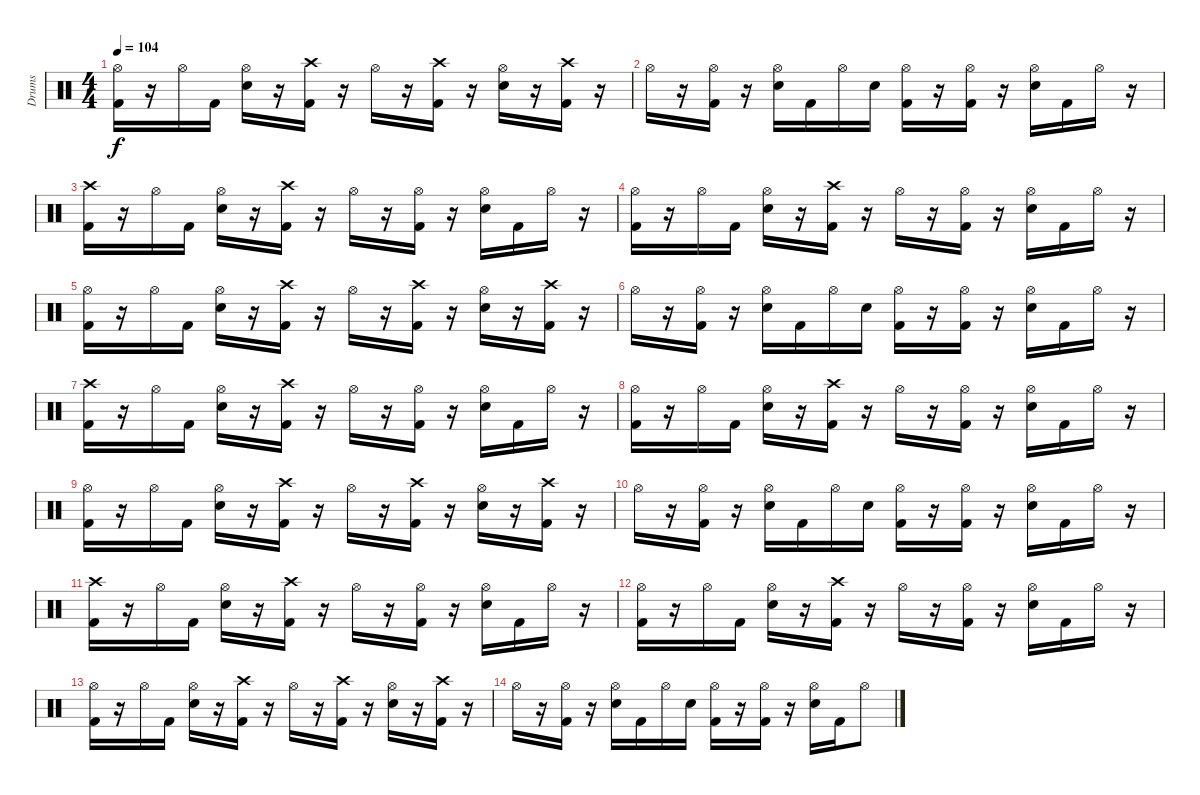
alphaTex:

\track ("Drums" "Drums") {instrument percussion}
\staff {score}
\articulation defaults
\ts (4 4)
\tempo 104
\clef neutral
\ks c
("Hi-Hat (open)" "Kick (hit) 2").16{dy f} r.16 "Hi-Hat (open)".16 "Kick (hit) 2".16 ("Hi-Hat (open)" "Snare (hit) 2").16 r.16 ("Crash high (hit)" "Kick (hit) 2").16 r.16 "Hi-Hat (open)".16 r.16 ("Crash high (hit)" "Kick (hit) 2").16 r.16 ("Hi-Hat (open)" "Snare (hit) 2").16 r.16 ("Crash high (hit)" "Kick (hit) 2").16 r.16 |
"Hi-Hat (open)".16 r.16 ("Hi-Hat (open)" "Kick (hit) 2").16 r.16 ("Hi-Hat (open)" "Snare (hit) 2").16 "Kick (hit) 2".16 "Hi-Hat (open)".16 "Snare (hit) 2".16 ("Hi-Hat (open)" "Kick (hit) 2").16 r.16 ("Hi-Hat (open)" "Kick (hit) 2").16 r.16 ("Hi-Hat (open)" "Snare (hit) 2").16 "Kick (hit) 2".16 "Hi-Hat (open)".16 r.16 |
("Crash high (hit)" "Kick (hit) 2").16 r.16 "Hi-Hat (open)".16 "Kick (hit) 2".16 ("Hi-Hat (open)" "Snare (hit) 2").16 r.16 ("Crash high (hit)" "Kick (hit) 2").16 r.16 "Hi-Hat (open)".16 r.16 ("Hi-Hat (open)" "Kick (hit) 2").16 r.16 ("Hi-Hat (open)" "Snare (hit) 2").16 "Kick (hit) 2".16 "Hi-Hat (open)".16 r.16 |
("Hi-Hat (open)" "Kick (hit) 2").16 r.16 "Hi-Hat (open)".16 "Kick (hit) 2".16 ("Hi-Hat (open)" "Snare (hit) 2").16 r.16 ("Crash high (hit)" "Kick (hit) 2").16 r.16 "Hi-Hat (open)".16 r.16 ("Hi-Hat (open)" "Kick (hit) 2").16 r.16 ("Hi-Hat (open)" "Snare (hit) 2").16 "Kick (hit) 2".16 "Hi-Hat (open)".16 r.16 |
("Hi-Hat (open)" "Kick (hit) 2").16 r.16 "Hi-Hat (open)".16 "Kick (hit) 2".16 ("Hi-Hat (open)" "Snare (hit) 2").16 r.16 ("Crash high (hit)" "Kick (hit) 2").16 r.16 "Hi-Hat (open)".16 r.16 ("Crash high (hit)" "Kick (hit) 2").16 r.16 ("Hi-Hat (open)" "Snare (hit) 2").16 r.16 ("Crash high (hit)" "Kick (hit) 2").16 r.16 |
"Hi-Hat (open)".16 r.16 ("Hi-Hat (open)" "Kick (hit) 2").16 r.16 ("Hi-Hat (open)" "Snare (hit) 2").16 "Kick (hit) 2".16 "Hi-Hat (open)".16 "Snare (hit) 2".16 ("Hi-Hat (open)" "Kick (hit) 2").16 r.16 ("Hi-Hat (open)" "Kick (hit) 2").16 r.16 ("Hi-Hat (open)" "Snare (hit) 2").16 "Kick (hit) 2".16 "Hi-Hat (open)".16 r.16 |
("Crash high (hit)" "Kick (hit) 2").16 r.16 "Hi-Hat (open)".16 "Kick (hit) 2".16 ("Hi-Hat (open)" "Snare (hit) 2").16 r.16 ("Crash high (hit)" "Kick (hit) 2").16 r.16 "Hi-Hat (open)".16 r.16 ("Hi-Hat (open)" "Kick (hit) 2").16 r.16 ("Hi-Hat (open)" "Snare (hit) 2").16 "Kick (hit) 2".16 "Hi-Hat (open)".16 r.16 |
("Hi-Hat (open)" "Kick (hit) 2").16 r.16 "Hi-Hat (open)".16 "Kick (hit) 2".16 ("Hi-Hat (open)" "Snare (hit) 2").16 r.16 ("Crash high (hit)" "Kick (hit) 2").16 r.16 "Hi-Hat (open)".16 r.16 ("Hi-Hat (open)" "Kick (hit) 2").16 r.16 ("Hi-Hat (open)" "Snare (hit) 2").16 "Kick (hit) 2".16 "Hi-Hat (open)".16 r.16 |
("Hi-Hat (open)" "Kick (hit) 2").16 r.16 "Hi-Hat (open)".16 "Kick (hit) 2".16 ("Hi-Hat (open)" "Snare (hit) 2").16 r.16 ("Crash high (hit)" "Kick (hit) 2").16 r.16 "Hi-Hat (open)".16 r.16 ("Crash high (hit)" "Kick (hit) 2").16 r.16 ("Hi-Hat (open)" "Snare (hit) 2").16 r.16 ("Crash high (hit)" "Kick (hit) 2").16 r.16 |
"Hi-Hat (open)".16 r.16 ("Hi-Hat (open)" "Kick (hit) 2").16 r.16 ("Hi-Hat (open)" "Snare (hit) 2").16 "Kick (hit) 2".16 "Hi-Hat (open)".16 "Snare (hit) 2".16 ("Hi-Hat (open)" "Kick (hit) 2").16 r.16 ("Hi-Hat (open)" "Kick (hit) 2").16 r.16 ("Hi-Hat (open)" "Snare (hit) 2").16 "Kick (hit) 2".16 "Hi-Hat (open)".16 r.16 |
("Crash high (hit)" "Kick (hit) 2").16 r.16 "Hi-Hat (open)".16 "Kick (hit) 2".16 ("Hi-Hat (open)" "Snare (hit) 2").16 r.16 ("Crash high (hit)" "Kick (hit) 2").16 r.16 "Hi-Hat (open)".16 r.16 ("Hi-Hat (open)" "Kick (hit) 2").16 r.16 ("Hi-Hat (open)" "Snare (hit) 2").16 "Kick (hit) 2".16 "Hi-Hat (open)".16 r.16 |
("Hi-Hat (open)" "Kick (hit) 2").16 r.16 "Hi-Hat (open)".16 "Kick (hit) 2".16 ("Hi-Hat (open)" "Snare (hit) 2").16 r.16 ("Crash high (hit)" "Kick (hit) 2").16 r.16 "Hi-Hat (open)".16 r.16 ("Hi-Hat (open)" "Kick (hit) 2").16 r.16 ("Hi-Hat (open)" "Snare (hit) 2").16 "Kick (hit) 2".16 "Hi-Hat (open)".16 r.16 |
("Hi-Hat (open)" "Kick (hit) 2").16 r.16 "Hi-Hat (open)".16 "Kick (hit) 2".16 ("Hi-Hat (open)" "Snare (hit) 2").16 r.16 ("Crash high (hit)" "Kick (hit) 2").16 r.16 "Hi-Hat (open)".16 r.16 ("Crash high (hit)" "Kick (hit) 2").16 r.16 ("Hi-Hat (open)" "Snare (hit) 2").16 r.16 ("Crash high (hit)" "Kick (hit) 2").16 r.16 |
"Hi-Hat (open)".16 r.16 ("Hi-Hat (open)" "Kick (hit) 2").16 r.16 ("Hi-Hat (open)" "Snare (hit) 2").16 "Kick (hit) 2".16 "Hi-Hat (open)".16 "Snare (hit) 2".16 ("Hi-Hat (open)" "Kick (hit) 2").16 r.16 ("Hi-Hat (open)" "Kick (hit) 2").16 r.16 ("Hi-Hat (open)" "Snare (hit) 2").16 "Kick (hit) 2".16 "Hi-Hat (open)".8
